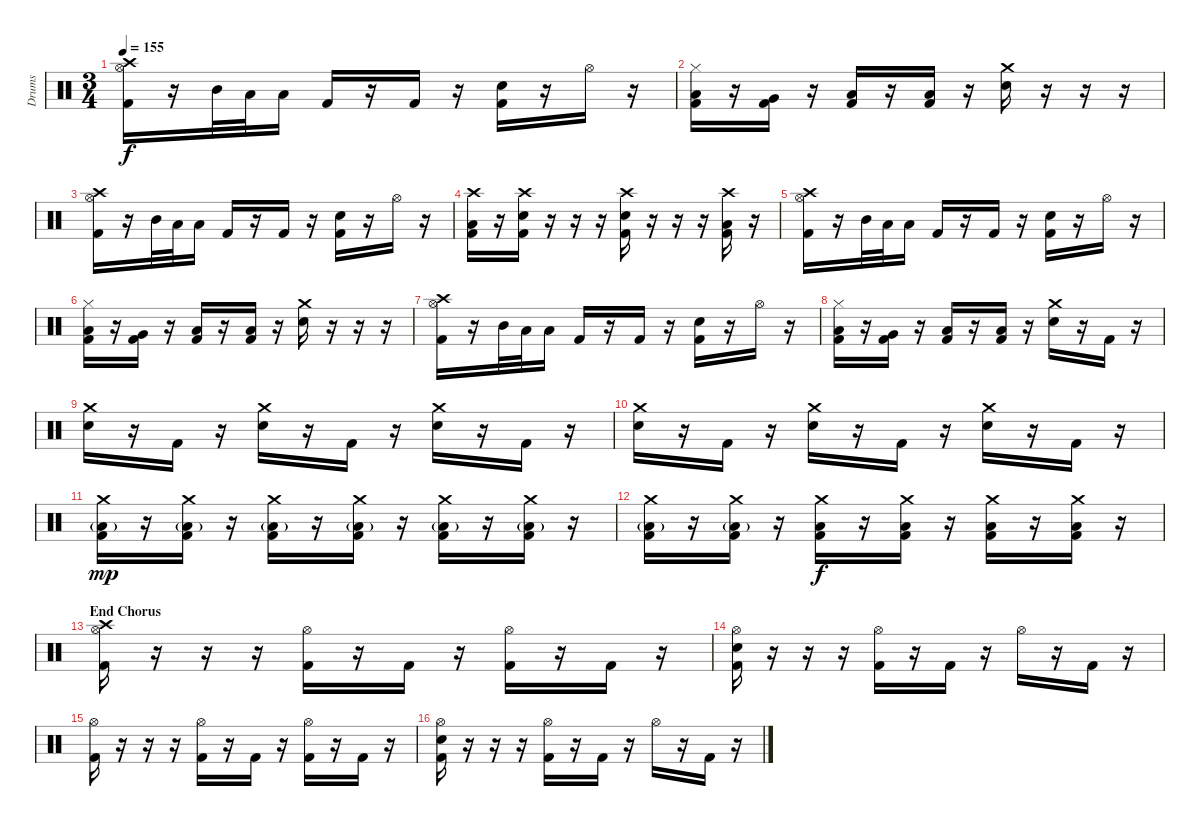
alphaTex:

\track ("Drums" "Drums") {instrument percussion}
\staff {score}
\articulation defaults
\ts (3 4)
\tempo 155
\clef neutral
\ks c
("Crash high (hit)" "Hi-Hat (open)" "Kick (hit) 2").16{dy f} r.16 "Mid Tom (hit)".32 "Low Tom (hit)".32 "Low Floor Tom (hit)".16 "Kick (hit) 2".16 r.16 "Kick (hit) 2".16 r.16 ("Snare (hit) 2" "Kick (hit) 2").16 r.16 "Hi-Hat (open)".16 r.16 |
("Hi-Hat (closed)" "Low Tom (hit)" "Kick (hit) 2").16 r.16 ("Very Low Tom (hit)" "Kick (hit) 2").16 r.16 ("Low Floor Tom (hit)" "Kick (hit) 2").16 r.16 ("Low Floor Tom (hit)" "Kick (hit) 2").16 r.16 ("Crash medium (hit)" "Snare (hit) 2").16 r.16 r.16 r.16 |
("Crash high (hit)" "Hi-Hat (open)" "Kick (hit) 2").16 r.16 "Mid Tom (hit)".32 "Low Tom (hit)".32 "Low Floor Tom (hit)".16 "Kick (hit) 2".16 r.16 "Kick (hit) 2".16 r.16 ("Snare (hit) 2" "Kick (hit) 2").16 r.16 "Hi-Hat (open)".16 r.16 |
("Crash high (hit)" "Low Floor Tom (hit)" "Kick (hit) 2").16 r.16 ("Crash high (hit)" "Snare (hit) 2" "Kick (hit) 2").16 r.16 r.16 r.16 ("Crash high (hit)" "Snare (hit) 2" "Kick (hit) 2").16 r.16 r.16 r.16 ("Crash high (hit)" "Low Floor Tom (hit)" "Kick (hit) 2").16 r.16 |
("Crash high (hit)" "Hi-Hat (open)" "Kick (hit) 2").16 r.16 "Mid Tom (hit)".32 "Low Tom (hit)".32 "Low Floor Tom (hit)".16 "Kick (hit) 2".16 r.16 "Kick (hit) 2".16 r.16 ("Snare (hit) 2" "Kick (hit) 2").16 r.16 "Hi-Hat (open)".16 r.16 |
("Hi-Hat (closed)" "Low Tom (hit)" "Kick (hit) 2").16 r.16 ("Very Low Tom (hit)" "Kick (hit) 2").16 r.16 ("Low Floor Tom (hit)" "Kick (hit) 2").16 r.16 ("Low Floor Tom (hit)" "Kick (hit) 2").16 r.16 ("Crash medium (hit)" "Snare (hit) 2").16 r.16 r.16 r.16 |
("Crash high (hit)" "Hi-Hat (open)" "Kick (hit) 2").16 r.16 "Mid Tom (hit)".32 "Low Tom (hit)".32 "Low Floor Tom (hit)".16 "Kick (hit) 2".16 r.16 "Kick (hit) 2".16 r.16 ("Snare (hit) 2" "Kick (hit) 2").16 r.16 "Hi-Hat (open)".16 r.16 |
("Hi-Hat (closed)" "Low Tom (hit)" "Kick (hit) 2").16 r.16 ("Very Low Tom (hit)" "Kick (hit) 2").16 r.16 ("Low Floor Tom (hit)" "Kick (hit) 2").16 r.16 ("Low Floor Tom (hit)" "Kick (hit) 2").16 r.16 ("Crash medium (hit)" "Snare (hit) 2").16 r.16 "Kick (hit) 2".16 r.16 |
("Crash medium (hit)" "Snare (hit) 2").16 r.16 "Kick (hit) 2".16 r.16 ("Crash medium (hit)" "Snare (hit) 2").16 r.16 "Kick (hit) 2".16 r.16 ("Crash medium (hit)" "Snare (hit) 2").16 r.16 "Kick (hit) 2".16 r.16 |
("Crash medium (hit)" "Snare (hit) 2").16 r.16 "Kick (hit) 2".16 r.16 ("Crash medium (hit)" "Snare (hit) 2").16 r.16 "Kick (hit) 2".16 r.16 ("Crash medium (hit)" "Snare (hit) 2").16 r.16 "Kick (hit) 2".16 r.16 |
("Crash medium (hit)" "Low Floor Tom (hit)"{g} "Kick (hit) 2").16{dy mp} r.16 ("Crash medium (hit)" "Low Floor Tom (hit)"{g} "Kick (hit) 2").16 r.16 ("Crash medium (hit)" "Low Floor Tom (hit)"{g} "Kick (hit) 2").16 r.16 ("Crash medium (hit)" "Low Floor Tom (hit)"{g} "Kick (hit) 2").16 r.16 ("Crash medium (hit)" "Low Floor Tom (hit)"{g} "Kick (hit) 2").16 r.16 ("Crash medium (hit)" "Low Floor Tom (hit)"{g} "Kick (hit) 2").16 r.16 |
("Crash medium (hit)" "Low Floor Tom (hit)"{g} "Kick (hit) 2").16 r.16 ("Crash medium (hit)" "Low Floor Tom (hit)"{g} "Kick (hit) 2").16 r.16 ("Crash medium (hit)" "Low Floor Tom (hit)" "Kick (hit) 2").16{dy f} r.16 ("Crash medium (hit)" "Low Floor Tom (hit)" "Kick (hit) 2").16 r.16 ("Crash medium (hit)" "Low Floor Tom (hit)" "Kick (hit) 2").16 r.16 ("Crash medium (hit)" "Low Floor Tom (hit)" "Kick (hit) 2").16 r.16 |
\section ("" "End Chorus")
("Crash high (hit)" "Hi-Hat (open)" "Kick (hit) 2").16 r.16 r.16 r.16 ("Hi-Hat (open)" "Kick (hit) 2").16 r.16 "Kick (hit) 2".16 r.16 ("Hi-Hat (open)" "Kick (hit) 2").16 r.16 "Kick (hit) 2".16 r.16 |
("Hi-Hat (open)" "Snare (hit) 2" "Kick (hit) 2").16 r.16 r.16 r.16 ("Hi-Hat (open)" "Kick (hit) 2").16 r.16 "Kick (hit) 2".16 r.16 "Hi-Hat (open)".16 r.16 "Kick (hit) 2".16 r.16 |
("Hi-Hat (open)" "Kick (hit) 2").16 r.16 r.16 r.16 ("Hi-Hat (open)" "Kick (hit) 2").16 r.16 "Kick (hit) 2".16 r.16 ("Hi-Hat (open)" "Kick (hit) 2").16 r.16 "Kick (hit) 2".16 r.16 |
("Hi-Hat (open)" "Snare (hit) 2" "Kick (hit) 2").16 r.16 r.16 r.16 ("Hi-Hat (open)" "Kick (hit) 2").16 r.16 "Kick (hit) 2".16 r.16 "Hi-Hat (open)".16 r.16 "Kick (hit) 2".16 r.16
